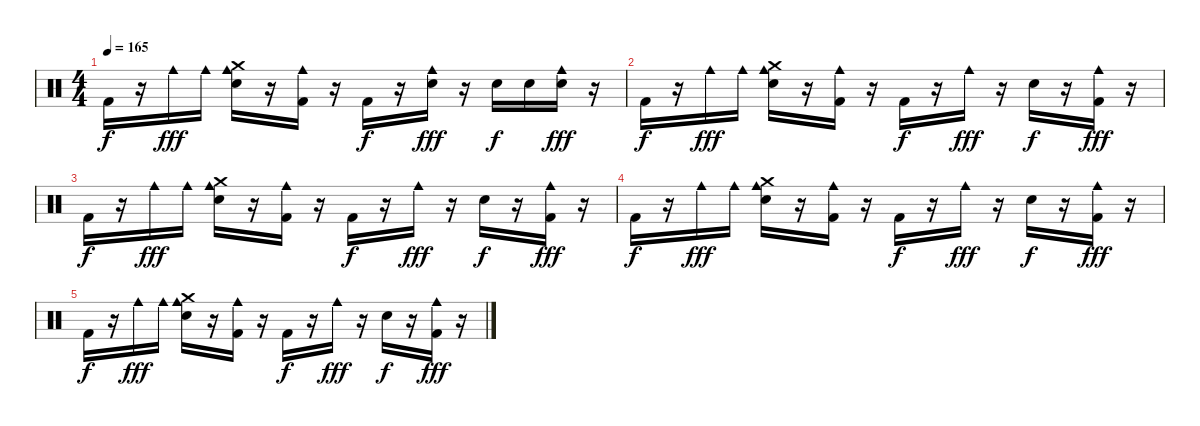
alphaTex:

\track "" {instrument percussion}
\staff {score}
\articulation defaults
\ts (4 4)
\tempo 165
\clef neutral
\ks c "Kick (hit) 2".16{dy f}
r.16 "Cowbell medium (hit)".16{dy fff} "Cowbell medium (hit)".16 ("Crash medium (hit)" "Snare (hit) 2" "Cowbell medium (hit)").16 r.16 ("Kick (hit) 2" "Cowbell medium (hit)").16 r.16 "Kick (hit) 2".16{dy f} r.16 ("Snare (hit) 2" "Cowbell medium (hit)").16{dy fff} r.16 "Snare (hit) 2".16{dy f} "Snare (hit) 2".16 ("Snare (hit) 2" "Cowbell medium (hit)").16{dy fff} r.16 |
"Kick (hit) 2".16{dy f} r.16 "Cowbell medium (hit)".16{dy fff} "Cowbell medium (hit)".16 ("Crash medium (hit)" "Snare (hit) 2" "Cowbell medium (hit)").16 r.16 ("Kick (hit) 2" "Cowbell medium (hit)").16 r.16 "Kick (hit) 2".16{dy f} r.16 "Cowbell medium (hit)".16{dy fff} r.16 "Snare (hit) 2".16{dy f} r.16 ("Kick (hit) 2" "Cowbell medium (hit)").16{dy fff} r.16 |
"Kick (hit) 2".16{dy f} r.16 "Cowbell medium (hit)".16{dy fff} "Cowbell medium (hit)".16 ("Crash medium (hit)" "Snare (hit) 2" "Cowbell medium (hit)").16 r.16 ("Kick (hit) 2" "Cowbell medium (hit)").16 r.16 "Kick (hit) 2".16{dy f} r.16 "Cowbell medium (hit)".16{dy fff} r.16 "Snare (hit) 2".16{dy f} r.16 ("Kick (hit) 2" "Cowbell medium (hit)").16{dy fff} r.16 |
"Kick (hit) 2".16{dy f} r.16 "Cowbell medium (hit)".16{dy fff} "Cowbell medium (hit)".16 ("Crash medium (hit)" "Snare (hit) 2" "Cowbell medium (hit)").16 r.16 ("Kick (hit) 2" "Cowbell medium (hit)").16 r.16 "Kick (hit) 2".16{dy f} r.16 "Cowbell medium (hit)".16{dy fff} r.16 "Snare (hit) 2".16{dy f} r.16 ("Kick (hit) 2" "Cowbell medium (hit)").16{dy fff} r.16 |
"Kick (hit) 2".16{dy f} r.16 "Cowbell medium (hit)".16{dy fff} "Cowbell medium (hit)".16 ("Crash medium (hit)" "Snare (hit) 2" "Cowbell medium (hit)").16 r.16 ("Kick (hit) 2" "Cowbell medium (hit)").16 r.16 "Kick (hit) 2".16{dy f} r.16 "Cowbell medium (hit)".16{dy fff} r.16 "Snare (hit) 2".16{dy f} r.16 ("Kick (hit) 2" "Cowbell medium (hit)").16{dy fff} r.16
